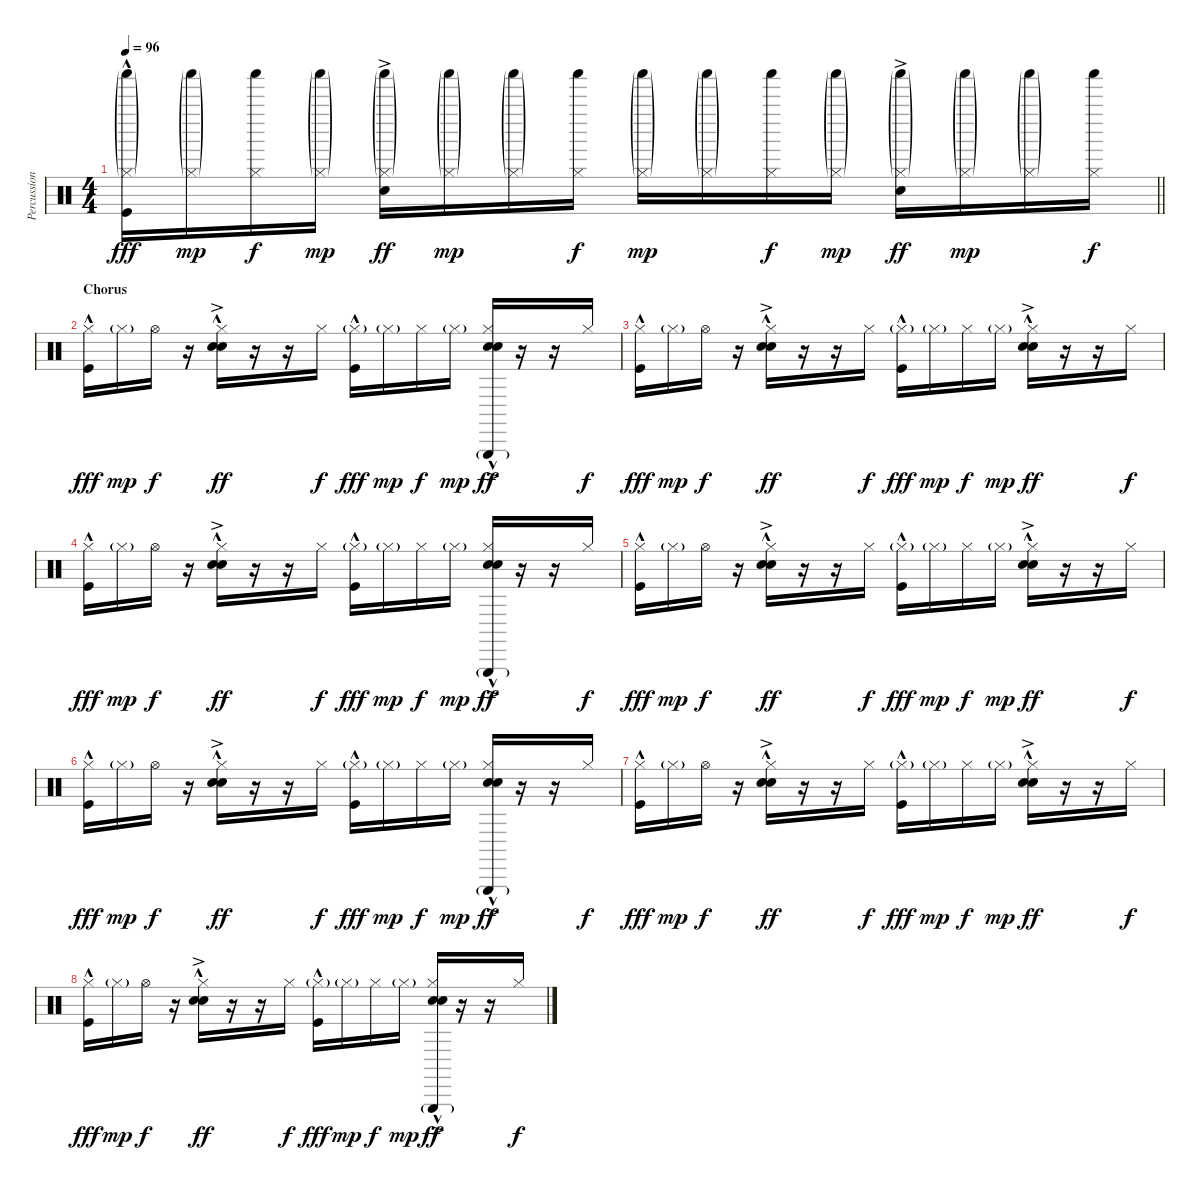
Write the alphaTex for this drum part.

\track ("Percussion" "Percussion") {instrument percussion}
\staff {score}
\articulation defaults
\ts (4 4)
\tempo 96
\clef neutral
\barLineRight lightlight
\ks c
("Shaker (hit)"{g} "Hi-Hat (closed)"{g} "Kick (hit)"{hac}).16{dy fff} ("Shaker (hit)"{g} "Hi-Hat (closed)"{g}).16{dy mp} ("Shaker (hit)" "Hi-Hat (closed)").16{dy f} ("Shaker (hit)"{g} "Hi-Hat (closed)"{g}).16{dy mp} ("Shaker (hit)"{g} "Hi-Hat (closed)"{g} "Snare (hit) 2"{ac}).16{dy ff} ("Shaker (hit)"{g} "Hi-Hat (closed)"{g}).16{dy mp} ("Shaker (hit)"{g} "Hi-Hat (closed)"{g}).16 ("Shaker (hit)" "Hi-Hat (closed)").16{dy f} ("Shaker (hit)"{g} "Hi-Hat (closed)"{g}).16{dy mp} ("Shaker (hit)"{g} "Hi-Hat (closed)"{g}).16 ("Shaker (hit)" "Hi-Hat (closed)").16{dy f} ("Shaker (hit)"{g} "Hi-Hat (closed)"{g}).16{dy mp} ("Shaker (hit)"{g} "Hi-Hat (closed)"{g} "Snare (hit) 2"{ac}).16{dy ff} ("Shaker (hit)"{g} "Hi-Hat (closed)"{g}).16{dy mp} ("Shaker (hit)"{g} "Hi-Hat (closed)"{g}).16 ("Shaker (hit)" "Hi-Hat (closed)").16{dy f} |
\section ("" "Chorus")
("Hi-Hat (closed)" "Kick (hit)"{hac}).16{dy fff} "Hi-Hat (closed)"{g}.16{dy mp} "Hi-Hat (open)".16{dy f} r.16 ("Hi-Hat (closed)" "Hand Clap (hit)"{hac} "Snare (hit) 2"{ac}).16{dy ff} r.16 r.16 "Hi-Hat (closed)".16{dy f} ("Hi-Hat (closed)"{g} "Kick (hit)"{hac}).16{dy fff} "Hi-Hat (closed)"{g}.16{dy mp} "Hi-Hat (closed)".16{dy f} "Hi-Hat (closed)"{g}.16{dy mp} ("Triangle (hit)"{g} "Hi-Hat (closed)" "Hand Clap (hit)"{hac} "Snare (hit) 2"{ac}).16{dy ff} r.16 r.16 "Hi-Hat (closed)".16{dy f} |
("Hi-Hat (closed)" "Kick (hit)"{hac}).16{dy fff} "Hi-Hat (closed)"{g}.16{dy mp} "Hi-Hat (open)".16{dy f} r.16 ("Hi-Hat (closed)" "Hand Clap (hit)"{hac} "Snare (hit) 2"{ac}).16{dy ff} r.16 r.16 "Hi-Hat (closed)".16{dy f} ("Hi-Hat (closed)"{g} "Kick (hit)"{hac}).16{dy fff} "Hi-Hat (closed)"{g}.16{dy mp} "Hi-Hat (closed)".16{dy f} "Hi-Hat (closed)"{g}.16{dy mp} ("Hi-Hat (closed)" "Hand Clap (hit)"{hac} "Snare (hit) 2"{ac}).16{dy ff} r.16 r.16 "Hi-Hat (closed)".16{dy f} |
("Hi-Hat (closed)" "Kick (hit)"{hac}).16{dy fff} "Hi-Hat (closed)"{g}.16{dy mp} "Hi-Hat (open)".16{dy f} r.16 ("Hi-Hat (closed)" "Hand Clap (hit)"{hac} "Snare (hit) 2"{ac}).16{dy ff} r.16 r.16 "Hi-Hat (closed)".16{dy f} ("Hi-Hat (closed)"{g} "Kick (hit)"{hac}).16{dy fff} "Hi-Hat (closed)"{g}.16{dy mp} "Hi-Hat (closed)".16{dy f} "Hi-Hat (closed)"{g}.16{dy mp} ("Triangle (hit)"{g} "Hi-Hat (closed)" "Hand Clap (hit)"{hac} "Snare (hit) 2"{ac}).16{dy ff} r.16 r.16 "Hi-Hat (closed)".16{dy f} |
("Hi-Hat (closed)" "Kick (hit)"{hac}).16{dy fff} "Hi-Hat (closed)"{g}.16{dy mp} "Hi-Hat (open)".16{dy f} r.16 ("Hi-Hat (closed)" "Hand Clap (hit)"{hac} "Snare (hit) 2"{ac}).16{dy ff} r.16 r.16 "Hi-Hat (closed)".16{dy f} ("Hi-Hat (closed)"{g} "Kick (hit)"{hac}).16{dy fff} "Hi-Hat (closed)"{g}.16{dy mp} "Hi-Hat (closed)".16{dy f} "Hi-Hat (closed)"{g}.16{dy mp} ("Hi-Hat (closed)" "Hand Clap (hit)"{hac} "Snare (hit) 2"{ac}).16{dy ff} r.16 r.16 "Hi-Hat (closed)".16{dy f} |
("Hi-Hat (closed)" "Kick (hit)"{hac}).16{dy fff} "Hi-Hat (closed)"{g}.16{dy mp} "Hi-Hat (open)".16{dy f} r.16 ("Hi-Hat (closed)" "Hand Clap (hit)"{hac} "Snare (hit) 2"{ac}).16{dy ff} r.16 r.16 "Hi-Hat (closed)".16{dy f} ("Hi-Hat (closed)"{g} "Kick (hit)"{hac}).16{dy fff} "Hi-Hat (closed)"{g}.16{dy mp} "Hi-Hat (closed)".16{dy f} "Hi-Hat (closed)"{g}.16{dy mp} ("Triangle (hit)"{g} "Hi-Hat (closed)" "Hand Clap (hit)"{hac} "Snare (hit) 2"{ac}).16{dy ff} r.16 r.16 "Hi-Hat (closed)".16{dy f} |
("Hi-Hat (closed)" "Kick (hit)"{hac}).16{dy fff} "Hi-Hat (closed)"{g}.16{dy mp} "Hi-Hat (open)".16{dy f} r.16 ("Hi-Hat (closed)" "Hand Clap (hit)"{hac} "Snare (hit) 2"{ac}).16{dy ff} r.16 r.16 "Hi-Hat (closed)".16{dy f} ("Hi-Hat (closed)"{g} "Kick (hit)"{hac}).16{dy fff} "Hi-Hat (closed)"{g}.16{dy mp} "Hi-Hat (closed)".16{dy f} "Hi-Hat (closed)"{g}.16{dy mp} ("Hi-Hat (closed)" "Hand Clap (hit)"{hac} "Snare (hit) 2"{ac}).16{dy ff} r.16 r.16 "Hi-Hat (closed)".16{dy f} |
("Hi-Hat (closed)" "Kick (hit)"{hac}).16{dy fff} "Hi-Hat (closed)"{g}.16{dy mp} "Hi-Hat (open)".16{dy f} r.16 ("Hi-Hat (closed)" "Hand Clap (hit)"{hac} "Snare (hit) 2"{ac}).16{dy ff} r.16 r.16 "Hi-Hat (closed)".16{dy f} ("Hi-Hat (closed)"{g} "Kick (hit)"{hac}).16{dy fff} "Hi-Hat (closed)"{g}.16{dy mp} "Hi-Hat (closed)".16{dy f} "Hi-Hat (closed)"{g}.16{dy mp} ("Triangle (hit)"{g} "Hi-Hat (closed)" "Hand Clap (hit)"{hac} "Snare (hit) 2"{ac}).16{dy ff} r.16 r.16 "Hi-Hat (closed)".16{dy f}
